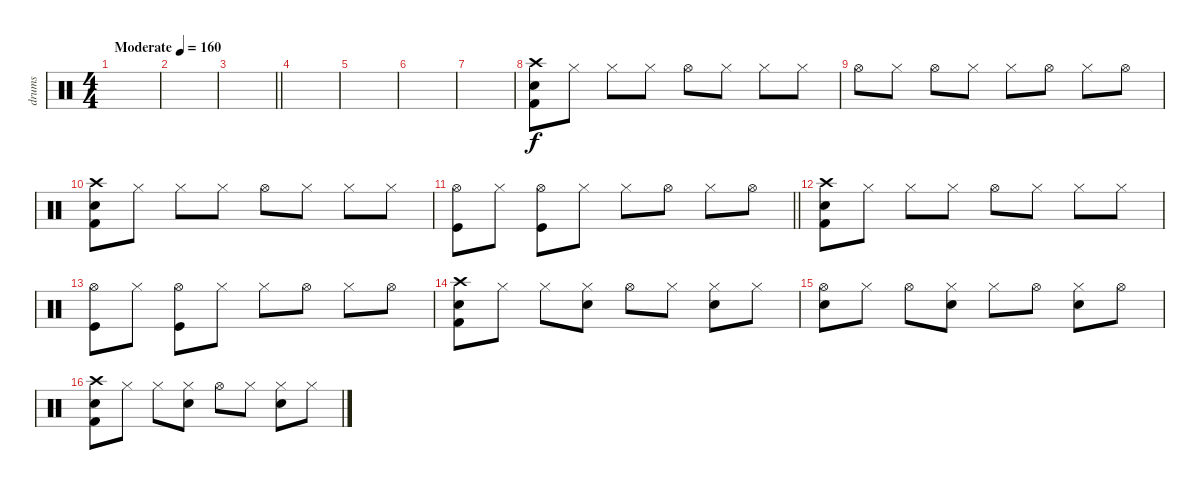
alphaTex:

\track ("drums" "drums") {instrument percussion}
\staff {score}
\articulation defaults
\ts (4 4)
\tempo (160 "Moderate")
\clef neutral
\ks c
|
|
\barLineRight lightlight
|
|
|
|
|
("Crash high (hit)" "Snare (hit) 2" "Kick (hit) 2").8 "Hi-Hat (closed)".8 "Hi-Hat (closed)".8 "Hi-Hat (closed)".8 "Hi-Hat (open)".8 "Hi-Hat (closed)".8 "Hi-Hat (closed)".8 "Hi-Hat (closed)".8 |
"Hi-Hat (open)".8 "Hi-Hat (closed)".8 "Hi-Hat (open)".8 "Hi-Hat (closed)".8 "Hi-Hat (closed)".8 "Hi-Hat (open)".8 "Hi-Hat (closed)".8 "Hi-Hat (open)".8 |
("Crash high (hit)" "Snare (hit) 2" "Kick (hit) 2").8 "Hi-Hat (closed)".8 "Hi-Hat (closed)".8 "Hi-Hat (closed)".8 "Hi-Hat (open)".8 "Hi-Hat (closed)".8 "Hi-Hat (closed)".8 "Hi-Hat (closed)".8 |
\barLineRight lightlight
("Hi-Hat (open)" "Kick (hit)").8 "Hi-Hat (closed)".8 ("Hi-Hat (open)" "Kick (hit)").8 "Hi-Hat (closed)".8 "Hi-Hat (closed)".8 "Hi-Hat (open)".8 "Hi-Hat (closed)".8 "Hi-Hat (open)".8 |
\section ("" "")
("Crash high (hit)" "Snare (hit) 2" "Kick (hit) 2").8 "Hi-Hat (closed)".8 "Hi-Hat (closed)".8 "Hi-Hat (closed)".8 "Hi-Hat (open)".8 "Hi-Hat (closed)".8 "Hi-Hat (closed)".8 "Hi-Hat (closed)".8 |
("Hi-Hat (open)" "Kick (hit)").8 "Hi-Hat (closed)".8 ("Hi-Hat (open)" "Kick (hit)").8 "Hi-Hat (closed)".8 "Hi-Hat (closed)".8 "Hi-Hat (open)".8 "Hi-Hat (closed)".8 "Hi-Hat (open)".8 |
("Crash high (hit)" "Snare (hit) 2" "Kick (hit) 2").8 "Hi-Hat (closed)".8 "Hi-Hat (closed)".8 ("Hi-Hat (closed)" "Snare (hit) 2").8 "Hi-Hat (open)".8 "Hi-Hat (closed)".8 ("Hi-Hat (closed)" "Snare (hit) 2").8 "Hi-Hat (closed)".8 |
("Hi-Hat (open)" "Snare (hit) 2").8 "Hi-Hat (closed)".8 "Hi-Hat (open)".8 ("Hi-Hat (closed)" "Snare (hit) 2").8 "Hi-Hat (closed)".8 "Hi-Hat (open)".8 ("Hi-Hat (closed)" "Snare (hit) 2").8 "Hi-Hat (open)".8 |
("Crash high (hit)" "Snare (hit) 2" "Kick (hit) 2").8 "Hi-Hat (closed)".8 "Hi-Hat (closed)".8 ("Hi-Hat (closed)" "Snare (hit) 2").8 "Hi-Hat (open)".8 "Hi-Hat (closed)".8 ("Hi-Hat (closed)" "Snare (hit) 2").8 "Hi-Hat (closed)".8
